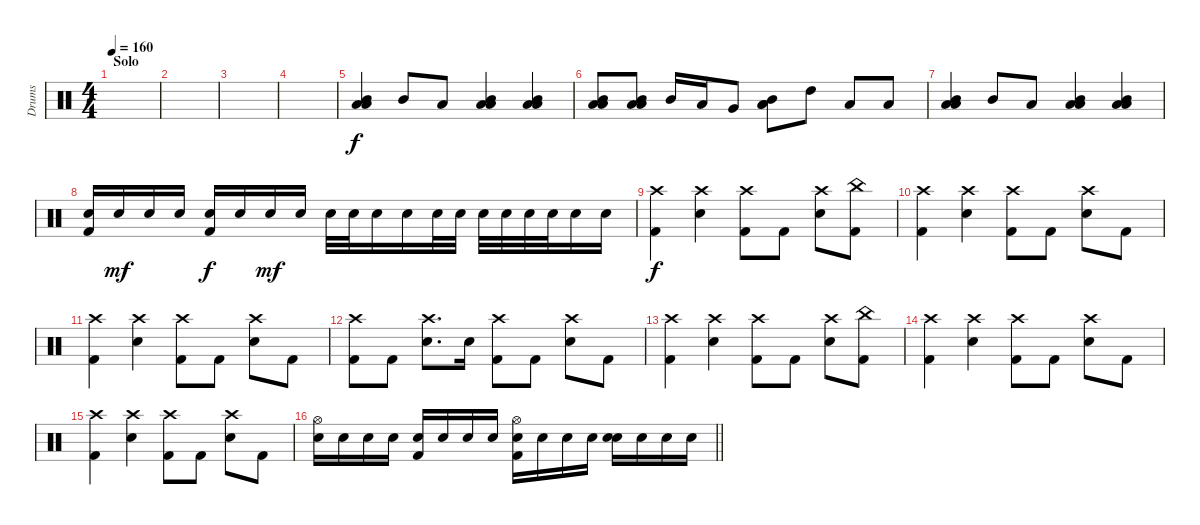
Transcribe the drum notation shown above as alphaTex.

\track ("Drums" "Drums") {instrument percussion}
\staff {score}
\articulation defaults
\ts (4 4)
\section ("" "Solo")
\tempo 160
\clef neutral
\ks c
|
|
|
|
("Mid Tom (hit)" "Low Tom (hit)" "Low Tom (hit)").4 "Mid Tom (hit)".8 "Low Tom (hit)".8 ("Mid Tom (hit)" "Low Tom (hit)" "Low Tom (hit)").4 ("Mid Tom (hit)" "Low Tom (hit)" "Low Tom (hit)").4 |
("Mid Tom (hit)" "Low Tom (hit)" "Low Tom (hit)").8 ("Mid Tom (hit)" "Low Tom (hit)" "Low Tom (hit)").8 "Mid Tom (hit)".16 "Low Tom (hit)".16 "Very Low Tom (hit)".8 ("Mid Tom (hit)" "Low Tom (hit)" "Low Tom (hit)").8 "High Tom (hit)".8 "Low Tom (hit)".8 "Low Tom (hit)".8 |
("Mid Tom (hit)" "Low Tom (hit)" "Low Tom (hit)").4 "Mid Tom (hit)".8 "Low Tom (hit)".8 ("Mid Tom (hit)" "Low Tom (hit)" "Low Tom (hit)").4 ("Mid Tom (hit)" "Low Tom (hit)" "Low Tom (hit)").4 |
("Electric Snare (hit)" "Kick (hit) 2").16 "Electric Snare (hit)".16{dy mf} "Electric Snare (hit)".16 "Electric Snare (hit)".16 ("Electric Snare (hit)" "Kick (hit) 2").16{dy f} "Electric Snare (hit)".16 "Electric Snare (hit)".16{dy mf} "Electric Snare (hit)".16 "Electric Snare (hit)".32 "Electric Snare (hit)".32 "Electric Snare (hit)".16 "Electric Snare (hit)".16 "Electric Snare (hit)".32 "Electric Snare (hit)".32 "Electric Snare (hit)".32 "Electric Snare (hit)".32 "Electric Snare (hit)".32 "Electric Snare (hit)".32 "Electric Snare (hit)".16 "Electric Snare (hit)".16 |
("Crash high (hit)" "Kick (hit) 2").4{dy f} ("Crash high (hit)" "Electric Snare (hit)").4 ("Crash high (hit)" "Kick (hit) 2").8 "Kick (hit) 2".8 ("Crash high (hit)" "Electric Snare (hit)").8 ("China (hit)" "Kick (hit) 2").8 |
("Crash high (hit)" "Kick (hit) 2").4 ("Crash high (hit)" "Electric Snare (hit)").4 ("Crash high (hit)" "Kick (hit) 2").8 "Kick (hit) 2".8 ("Crash high (hit)" "Electric Snare (hit)").8 "Kick (hit) 2".8 |
("Crash high (hit)" "Kick (hit) 2").4 ("Crash high (hit)" "Electric Snare (hit)").4 ("Crash high (hit)" "Kick (hit) 2").8 "Kick (hit) 2".8 ("Crash high (hit)" "Electric Snare (hit)").8 "Kick (hit) 2".8 |
("Crash high (hit)" "Kick (hit) 2").8 "Kick (hit) 2".8 ("Crash high (hit)" "Electric Snare (hit)").8{d} "Electric Snare (hit)".16 ("Crash high (hit)" "Kick (hit) 2").8 "Kick (hit) 2".8 ("Crash high (hit)" "Electric Snare (hit)").8 "Kick (hit) 2".8 |
("Crash high (hit)" "Kick (hit) 2").4 ("Crash high (hit)" "Electric Snare (hit)").4 ("Crash high (hit)" "Kick (hit) 2").8 "Kick (hit) 2".8 ("Crash high (hit)" "Electric Snare (hit)").8 ("China (hit)" "Kick (hit) 2").8 |
("Crash high (hit)" "Kick (hit) 2").4 ("Crash high (hit)" "Electric Snare (hit)").4 ("Crash high (hit)" "Kick (hit) 2").8 "Kick (hit) 2".8 ("Crash high (hit)" "Electric Snare (hit)").8 "Kick (hit) 2".8 |
("Crash high (hit)" "Kick (hit) 2").4 ("Crash high (hit)" "Electric Snare (hit)").4 ("Crash high (hit)" "Kick (hit) 2").8 "Kick (hit) 2".8 ("Crash high (hit)" "Electric Snare (hit)").8 "Kick (hit) 2".8 |
\barLineRight lightlight
("Hi-Hat (open)" "Electric Snare (hit)").16 "Electric Snare (hit)".16 "Electric Snare (hit)".16 "Electric Snare (hit)".16 ("Electric Snare (hit)" "Kick (hit) 2").16 "Electric Snare (hit)".16 "Electric Snare (hit)".16 "Electric Snare (hit)".16 ("Hi-Hat (open)" "Electric Snare (hit)" "Kick (hit) 2").16 "Electric Snare (hit)".16 "Electric Snare (hit)".16 "Electric Snare (hit)".16 ("Electric Snare (hit)" "Electric Snare (hit)").16 "Electric Snare (hit)".16 "Electric Snare (hit)".16 "Electric Snare (hit)".16
